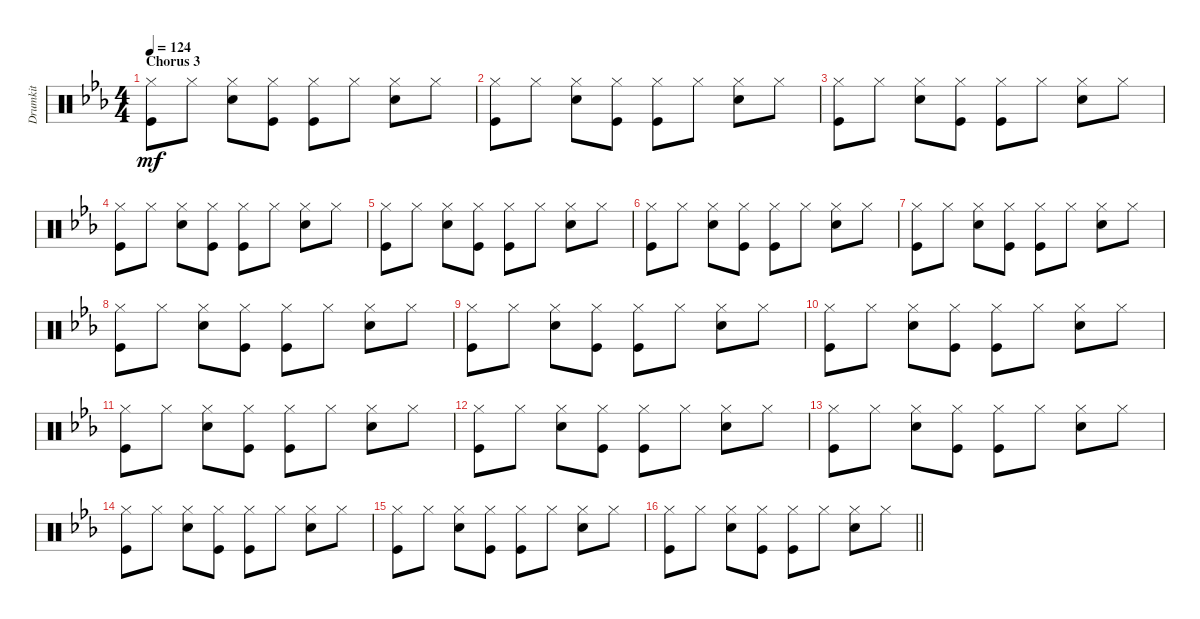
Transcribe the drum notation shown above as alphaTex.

\track ("Drumkit" "Drumkit") {instrument percussion}
\staff {score}
\articulation defaults
\ts (4 4)
\section ("" "Chorus 3")
\tempo 124
\clef neutral
\ks eb
("Hi-Hat (closed)" "Kick (hit)").8{dy mf} "Hi-Hat (closed)".8 ("Hi-Hat (closed)" "Snare (hit) 2").8 ("Hi-Hat (closed)" "Kick (hit)").8 ("Hi-Hat (closed)" "Kick (hit)").8 "Hi-Hat (closed)".8 ("Hi-Hat (closed)" "Snare (hit) 2").8 "Hi-Hat (closed)".8 |
("Hi-Hat (closed)" "Kick (hit)").8 "Hi-Hat (closed)".8 ("Hi-Hat (closed)" "Snare (hit) 2").8 ("Hi-Hat (closed)" "Kick (hit)").8 ("Hi-Hat (closed)" "Kick (hit)").8 "Hi-Hat (closed)".8 ("Hi-Hat (closed)" "Snare (hit) 2").8 "Hi-Hat (closed)".8 |
("Hi-Hat (closed)" "Kick (hit)").8 "Hi-Hat (closed)".8 ("Hi-Hat (closed)" "Snare (hit) 2").8 ("Hi-Hat (closed)" "Kick (hit)").8 ("Hi-Hat (closed)" "Kick (hit)").8 "Hi-Hat (closed)".8 ("Hi-Hat (closed)" "Snare (hit) 2").8 "Hi-Hat (closed)".8 |
("Hi-Hat (closed)" "Kick (hit)").8 "Hi-Hat (closed)".8 ("Hi-Hat (closed)" "Snare (hit) 2").8 ("Hi-Hat (closed)" "Kick (hit)").8 ("Hi-Hat (closed)" "Kick (hit)").8 "Hi-Hat (closed)".8 ("Hi-Hat (closed)" "Snare (hit) 2").8 "Hi-Hat (closed)".8 |
("Hi-Hat (closed)" "Kick (hit)").8 "Hi-Hat (closed)".8 ("Hi-Hat (closed)" "Snare (hit) 2").8 ("Hi-Hat (closed)" "Kick (hit)").8 ("Hi-Hat (closed)" "Kick (hit)").8 "Hi-Hat (closed)".8 ("Hi-Hat (closed)" "Snare (hit) 2").8 "Hi-Hat (closed)".8 |
("Hi-Hat (closed)" "Kick (hit)").8 "Hi-Hat (closed)".8 ("Hi-Hat (closed)" "Snare (hit) 2").8 ("Hi-Hat (closed)" "Kick (hit)").8 ("Hi-Hat (closed)" "Kick (hit)").8 "Hi-Hat (closed)".8 ("Hi-Hat (closed)" "Snare (hit) 2").8 "Hi-Hat (closed)".8 |
("Hi-Hat (closed)" "Kick (hit)").8 "Hi-Hat (closed)".8 ("Hi-Hat (closed)" "Snare (hit) 2").8 ("Hi-Hat (closed)" "Kick (hit)").8 ("Hi-Hat (closed)" "Kick (hit)").8 "Hi-Hat (closed)".8 ("Hi-Hat (closed)" "Snare (hit) 2").8 "Hi-Hat (closed)".8 |
("Hi-Hat (closed)" "Kick (hit)").8 "Hi-Hat (closed)".8 ("Hi-Hat (closed)" "Snare (hit) 2").8 ("Hi-Hat (closed)" "Kick (hit)").8 ("Hi-Hat (closed)" "Kick (hit)").8 "Hi-Hat (closed)".8 ("Hi-Hat (closed)" "Snare (hit) 2").8 "Hi-Hat (closed)".8 |
("Hi-Hat (closed)" "Kick (hit)").8 "Hi-Hat (closed)".8 ("Hi-Hat (closed)" "Snare (hit) 2").8 ("Hi-Hat (closed)" "Kick (hit)").8 ("Hi-Hat (closed)" "Kick (hit)").8 "Hi-Hat (closed)".8 ("Hi-Hat (closed)" "Snare (hit) 2").8 "Hi-Hat (closed)".8 |
("Hi-Hat (closed)" "Kick (hit)").8 "Hi-Hat (closed)".8 ("Hi-Hat (closed)" "Snare (hit) 2").8 ("Hi-Hat (closed)" "Kick (hit)").8 ("Hi-Hat (closed)" "Kick (hit)").8 "Hi-Hat (closed)".8 ("Hi-Hat (closed)" "Snare (hit) 2").8 "Hi-Hat (closed)".8 |
("Hi-Hat (closed)" "Kick (hit)").8 "Hi-Hat (closed)".8 ("Hi-Hat (closed)" "Snare (hit) 2").8 ("Hi-Hat (closed)" "Kick (hit)").8 ("Hi-Hat (closed)" "Kick (hit)").8 "Hi-Hat (closed)".8 ("Hi-Hat (closed)" "Snare (hit) 2").8 "Hi-Hat (closed)".8 |
("Hi-Hat (closed)" "Kick (hit)").8 "Hi-Hat (closed)".8 ("Hi-Hat (closed)" "Snare (hit) 2").8 ("Hi-Hat (closed)" "Kick (hit)").8 ("Hi-Hat (closed)" "Kick (hit)").8 "Hi-Hat (closed)".8 ("Hi-Hat (closed)" "Snare (hit) 2").8 "Hi-Hat (closed)".8 |
("Hi-Hat (closed)" "Kick (hit)").8 "Hi-Hat (closed)".8 ("Hi-Hat (closed)" "Snare (hit) 2").8 ("Hi-Hat (closed)" "Kick (hit)").8 ("Hi-Hat (closed)" "Kick (hit)").8 "Hi-Hat (closed)".8 ("Hi-Hat (closed)" "Snare (hit) 2").8 "Hi-Hat (closed)".8 |
("Hi-Hat (closed)" "Kick (hit)").8 "Hi-Hat (closed)".8 ("Hi-Hat (closed)" "Snare (hit) 2").8 ("Hi-Hat (closed)" "Kick (hit)").8 ("Hi-Hat (closed)" "Kick (hit)").8 "Hi-Hat (closed)".8 ("Hi-Hat (closed)" "Snare (hit) 2").8 "Hi-Hat (closed)".8 |
("Hi-Hat (closed)" "Kick (hit)").8 "Hi-Hat (closed)".8 ("Hi-Hat (closed)" "Snare (hit) 2").8 ("Hi-Hat (closed)" "Kick (hit)").8 ("Hi-Hat (closed)" "Kick (hit)").8 "Hi-Hat (closed)".8 ("Hi-Hat (closed)" "Snare (hit) 2").8 "Hi-Hat (closed)".8 |
\barLineRight lightlight
("Hi-Hat (closed)" "Kick (hit)").8 "Hi-Hat (closed)".8 ("Hi-Hat (closed)" "Snare (hit) 2").8 ("Hi-Hat (closed)" "Kick (hit)").8 ("Hi-Hat (closed)" "Kick (hit)").8 "Hi-Hat (closed)".8 ("Hi-Hat (closed)" "Snare (hit) 2").8 "Hi-Hat (closed)".8
